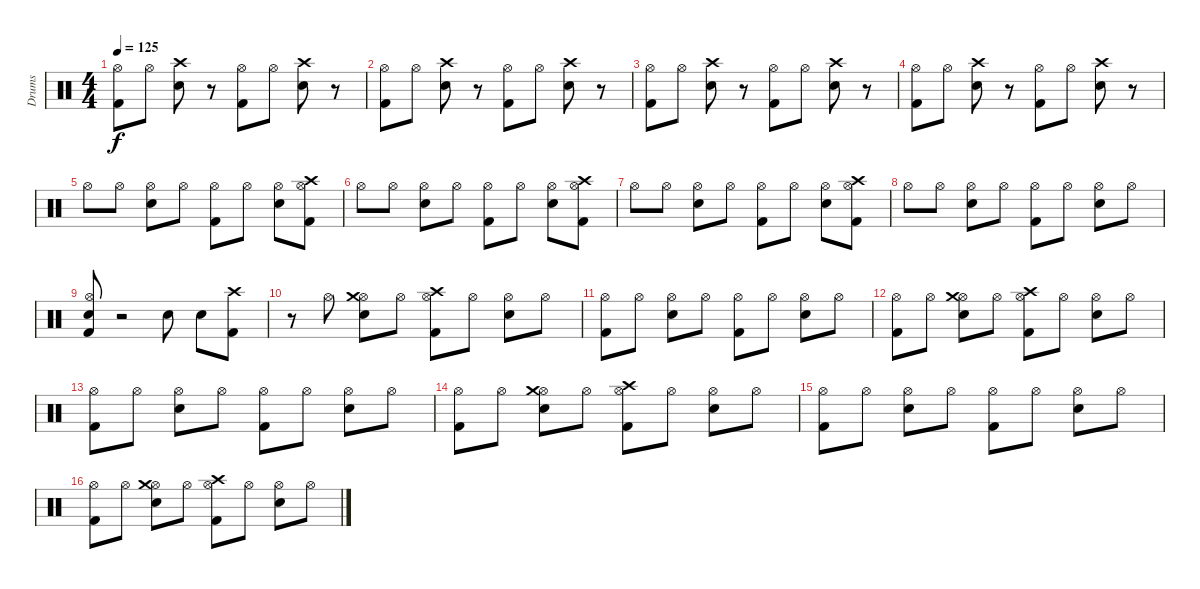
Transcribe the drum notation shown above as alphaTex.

\track ("Drums" "Drums") {instrument percussion}
\staff {score}
\articulation defaults
\ts (4 4)
\tempo 125
\clef neutral
\ks c
("Kick (hit) 2" "Hi-Hat (open)").8{dy f} "Hi-Hat (open)".8 ("Electric Snare (hit)" "Crash high (hit)").8 r.8 ("Kick (hit) 2" "Hi-Hat (open)").8 "Hi-Hat (open)".8 ("Electric Snare (hit)" "Crash high (hit)").8 r.8 |
("Kick (hit) 2" "Hi-Hat (open)").8 "Hi-Hat (open)".8 ("Electric Snare (hit)" "Crash high (hit)").8 r.8 ("Kick (hit) 2" "Hi-Hat (open)").8 "Hi-Hat (open)".8 ("Electric Snare (hit)" "Crash high (hit)").8 r.8 |
("Kick (hit) 2" "Hi-Hat (open)").8 "Hi-Hat (open)".8 ("Electric Snare (hit)" "Crash high (hit)").8 r.8 ("Kick (hit) 2" "Hi-Hat (open)").8 "Hi-Hat (open)".8 ("Electric Snare (hit)" "Crash high (hit)").8 r.8 |
("Kick (hit) 2" "Hi-Hat (open)").8 "Hi-Hat (open)".8 ("Electric Snare (hit)" "Crash high (hit)").8 r.8 ("Kick (hit) 2" "Hi-Hat (open)").8 "Hi-Hat (open)".8 ("Electric Snare (hit)" "Crash high (hit)").8 r.8 |
"Hi-Hat (open)".8 "Hi-Hat (open)".8 ("Electric Snare (hit)" "Hi-Hat (open)").8 "Hi-Hat (open)".8 ("Kick (hit) 2" "Hi-Hat (open)").8 "Hi-Hat (open)".8 ("Electric Snare (hit)" "Hi-Hat (open)").8 ("Kick (hit) 2" "Hi-Hat (open)" "Crash high (hit)").8 |
"Hi-Hat (open)".8 "Hi-Hat (open)".8 ("Electric Snare (hit)" "Hi-Hat (open)").8 "Hi-Hat (open)".8 ("Kick (hit) 2" "Hi-Hat (open)").8 "Hi-Hat (open)".8 ("Electric Snare (hit)" "Hi-Hat (open)").8 ("Kick (hit) 2" "Hi-Hat (open)" "Crash high (hit)").8 |
"Hi-Hat (open)".8 "Hi-Hat (open)".8 ("Electric Snare (hit)" "Hi-Hat (open)").8 "Hi-Hat (open)".8 ("Kick (hit) 2" "Hi-Hat (open)").8 "Hi-Hat (open)".8 ("Electric Snare (hit)" "Hi-Hat (open)").8 ("Kick (hit) 2" "Hi-Hat (open)" "Crash high (hit)").8 |
"Hi-Hat (open)".8 "Hi-Hat (open)".8 ("Electric Snare (hit)" "Hi-Hat (open)").8 "Hi-Hat (open)".8 ("Kick (hit) 2" "Hi-Hat (open)").8 "Hi-Hat (open)".8 ("Electric Snare (hit)" "Hi-Hat (open)").8 "Hi-Hat (open)".8 |
("Kick (hit) 2" "Electric Snare (hit)" "Hi-Hat (open)").8 r.2 "Electric Snare (hit)".8 "Electric Snare (hit)".8 ("Kick (hit) 2" "Crash high (hit)").8 |
r.8 "Hi-Hat (open)".8 ("Electric Snare (hit)" "Hi-Hat (open)" "Crash medium (hit)").8 "Hi-Hat (open)".8 ("Kick (hit) 2" "Hi-Hat (open)" "Crash high (hit)").8 "Hi-Hat (open)".8 ("Electric Snare (hit)" "Hi-Hat (open)").8 "Hi-Hat (open)".8 |
("Kick (hit) 2" "Hi-Hat (open)").8 "Hi-Hat (open)".8 ("Electric Snare (hit)" "Hi-Hat (open)").8 "Hi-Hat (open)".8 ("Kick (hit) 2" "Hi-Hat (open)").8 "Hi-Hat (open)".8 ("Electric Snare (hit)" "Hi-Hat (open)").8 "Hi-Hat (open)".8 |
("Kick (hit) 2" "Hi-Hat (open)").8 "Hi-Hat (open)".8 ("Electric Snare (hit)" "Hi-Hat (open)" "Crash medium (hit)").8 "Hi-Hat (open)".8 ("Kick (hit) 2" "Hi-Hat (open)" "Crash high (hit)").8 "Hi-Hat (open)".8 ("Electric Snare (hit)" "Hi-Hat (open)").8 "Hi-Hat (open)".8 |
("Kick (hit) 2" "Hi-Hat (open)").8 "Hi-Hat (open)".8 ("Electric Snare (hit)" "Hi-Hat (open)").8 "Hi-Hat (open)".8 ("Kick (hit) 2" "Hi-Hat (open)").8 "Hi-Hat (open)".8 ("Electric Snare (hit)" "Hi-Hat (open)").8 "Hi-Hat (open)".8 |
("Kick (hit) 2" "Hi-Hat (open)").8 "Hi-Hat (open)".8 ("Electric Snare (hit)" "Hi-Hat (open)" "Crash medium (hit)").8 "Hi-Hat (open)".8 ("Kick (hit) 2" "Hi-Hat (open)" "Crash high (hit)").8 "Hi-Hat (open)".8 ("Electric Snare (hit)" "Hi-Hat (open)").8 "Hi-Hat (open)".8 |
("Kick (hit) 2" "Hi-Hat (open)").8 "Hi-Hat (open)".8 ("Electric Snare (hit)" "Hi-Hat (open)").8 "Hi-Hat (open)".8 ("Kick (hit) 2" "Hi-Hat (open)").8 "Hi-Hat (open)".8 ("Electric Snare (hit)" "Hi-Hat (open)").8 "Hi-Hat (open)".8 |
("Kick (hit) 2" "Hi-Hat (open)").8 "Hi-Hat (open)".8 ("Electric Snare (hit)" "Hi-Hat (open)" "Crash medium (hit)").8 "Hi-Hat (open)".8 ("Kick (hit) 2" "Hi-Hat (open)" "Crash high (hit)").8 "Hi-Hat (open)".8 ("Electric Snare (hit)" "Hi-Hat (open)").8 "Hi-Hat (open)".8
